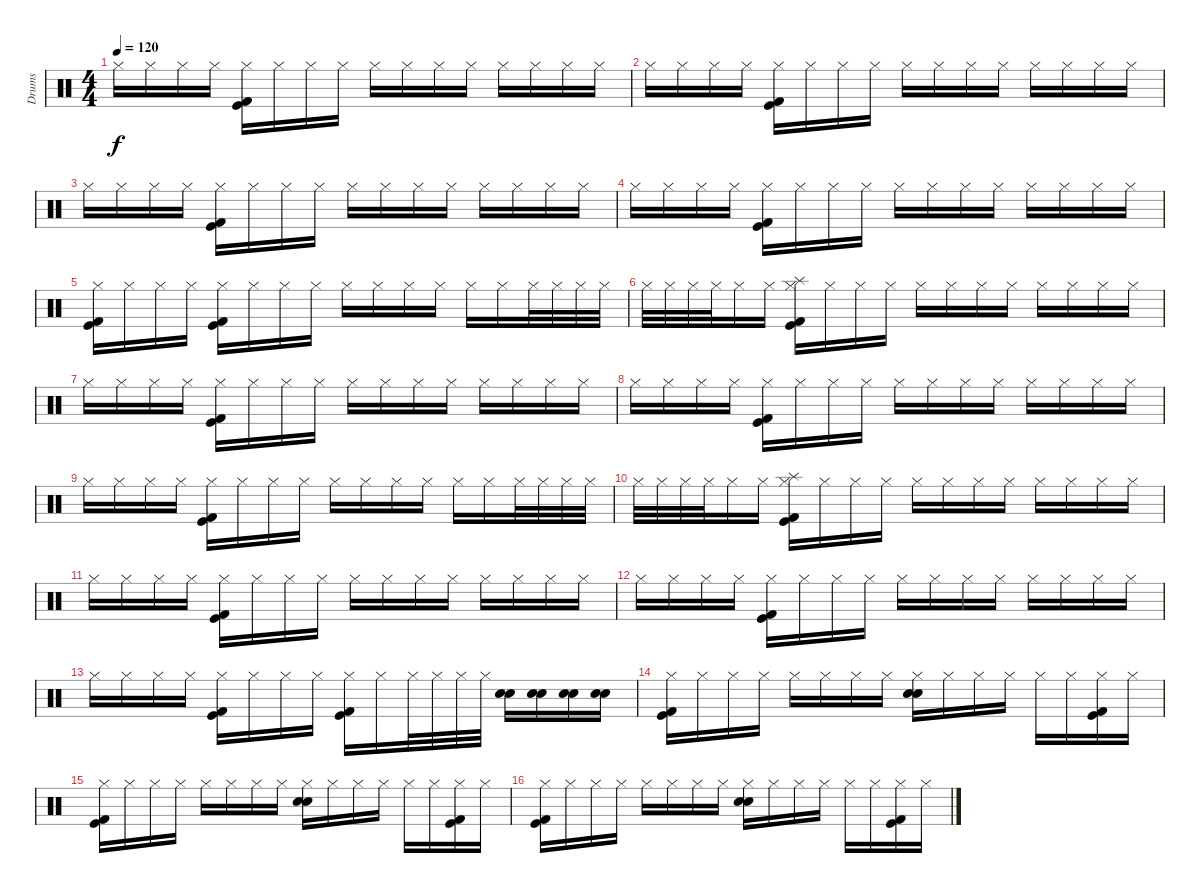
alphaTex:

\track ("Drums" "Drums") {instrument percussion}
\staff {score}
\articulation defaults
\ts (4 4)
\tempo 120
\clef neutral
\ks c "Hi-Hat (closed)".16{dy f} "Hi-Hat (closed)".16 "Hi-Hat (closed)".16 "Hi-Hat (closed)".16
("Hi-Hat (closed)" "Kick (hit)" "Kick (hit) 2").16 "Hi-Hat (closed)".16 "Hi-Hat (closed)".16 "Hi-Hat (closed)".16 "Hi-Hat (closed)".16 "Hi-Hat (closed)".16 "Hi-Hat (closed)".16 "Hi-Hat (closed)".16 "Hi-Hat (closed)".16 "Hi-Hat (closed)".16 "Hi-Hat (closed)".16 "Hi-Hat (closed)".16 |
"Hi-Hat (closed)".16 "Hi-Hat (closed)".16 "Hi-Hat (closed)".16 "Hi-Hat (closed)".16 ("Hi-Hat (closed)" "Kick (hit)" "Kick (hit) 2").16 "Hi-Hat (closed)".16 "Hi-Hat (closed)".16 "Hi-Hat (closed)".16 "Hi-Hat (closed)".16 "Hi-Hat (closed)".16 "Hi-Hat (closed)".16 "Hi-Hat (closed)".16 "Hi-Hat (closed)".16 "Hi-Hat (closed)".16 "Hi-Hat (closed)".16 "Hi-Hat (closed)".16 |
"Hi-Hat (closed)".16 "Hi-Hat (closed)".16 "Hi-Hat (closed)".16 "Hi-Hat (closed)".16 ("Hi-Hat (closed)" "Kick (hit)" "Kick (hit) 2").16 "Hi-Hat (closed)".16 "Hi-Hat (closed)".16 "Hi-Hat (closed)".16 "Hi-Hat (closed)".16 "Hi-Hat (closed)".16 "Hi-Hat (closed)".16 "Hi-Hat (closed)".16 "Hi-Hat (closed)".16 "Hi-Hat (closed)".16 "Hi-Hat (closed)".16 "Hi-Hat (closed)".16 |
"Hi-Hat (closed)".16 "Hi-Hat (closed)".16 "Hi-Hat (closed)".16 "Hi-Hat (closed)".16 ("Hi-Hat (closed)" "Kick (hit)" "Kick (hit) 2").16 "Hi-Hat (closed)".16 "Hi-Hat (closed)".16 "Hi-Hat (closed)".16 "Hi-Hat (closed)".16 "Hi-Hat (closed)".16 "Hi-Hat (closed)".16 "Hi-Hat (closed)".16 "Hi-Hat (closed)".16 "Hi-Hat (closed)".16 "Hi-Hat (closed)".16 "Hi-Hat (closed)".16 |
("Hi-Hat (closed)" "Kick (hit)" "Kick (hit) 2").16 "Hi-Hat (closed)".16 "Hi-Hat (closed)".16 "Hi-Hat (closed)".16 ("Hi-Hat (closed)" "Kick (hit)" "Kick (hit) 2").16 "Hi-Hat (closed)".16 "Hi-Hat (closed)".16 "Hi-Hat (closed)".16 "Hi-Hat (closed)".16 "Hi-Hat (closed)".16 "Hi-Hat (closed)".16 "Hi-Hat (closed)".16 "Hi-Hat (closed)".16 "Hi-Hat (closed)".16 "Hi-Hat (closed)".32 "Hi-Hat (closed)".32 "Hi-Hat (closed)".32 "Hi-Hat (closed)".32 |
"Hi-Hat (closed)".32 "Hi-Hat (closed)".32 "Hi-Hat (closed)".32 "Hi-Hat (closed)".32 "Hi-Hat (closed)".16 "Hi-Hat (closed)".16 ("Splash (hit)" "Hi-Hat (closed)" "Kick (hit)" "Kick (hit) 2").16 "Hi-Hat (closed)".16 "Hi-Hat (closed)".16 "Hi-Hat (closed)".16 "Hi-Hat (closed)".16 "Hi-Hat (closed)".16 "Hi-Hat (closed)".16 "Hi-Hat (closed)".16 "Hi-Hat (closed)".16 "Hi-Hat (closed)".16 "Hi-Hat (closed)".16 "Hi-Hat (closed)".16 |
"Hi-Hat (closed)".16 "Hi-Hat (closed)".16 "Hi-Hat (closed)".16 "Hi-Hat (closed)".16 ("Hi-Hat (closed)" "Kick (hit)" "Kick (hit) 2").16 "Hi-Hat (closed)".16 "Hi-Hat (closed)".16 "Hi-Hat (closed)".16 "Hi-Hat (closed)".16 "Hi-Hat (closed)".16 "Hi-Hat (closed)".16 "Hi-Hat (closed)".16 "Hi-Hat (closed)".16 "Hi-Hat (closed)".16 "Hi-Hat (closed)".16 "Hi-Hat (closed)".16 |
"Hi-Hat (closed)".16 "Hi-Hat (closed)".16 "Hi-Hat (closed)".16 "Hi-Hat (closed)".16 ("Hi-Hat (closed)" "Kick (hit)" "Kick (hit) 2").16 "Hi-Hat (closed)".16 "Hi-Hat (closed)".16 "Hi-Hat (closed)".16 "Hi-Hat (closed)".16 "Hi-Hat (closed)".16 "Hi-Hat (closed)".16 "Hi-Hat (closed)".16 "Hi-Hat (closed)".16 "Hi-Hat (closed)".16 "Hi-Hat (closed)".16 "Hi-Hat (closed)".16 |
"Hi-Hat (closed)".16 "Hi-Hat (closed)".16 "Hi-Hat (closed)".16 "Hi-Hat (closed)".16 ("Hi-Hat (closed)" "Kick (hit)" "Kick (hit) 2").16 "Hi-Hat (closed)".16 "Hi-Hat (closed)".16 "Hi-Hat (closed)".16 "Hi-Hat (closed)".16 "Hi-Hat (closed)".16 "Hi-Hat (closed)".16 "Hi-Hat (closed)".16 "Hi-Hat (closed)".16 "Hi-Hat (closed)".16 "Hi-Hat (closed)".32 "Hi-Hat (closed)".32 "Hi-Hat (closed)".32 "Hi-Hat (closed)".32 |
"Hi-Hat (closed)".32 "Hi-Hat (closed)".32 "Hi-Hat (closed)".32 "Hi-Hat (closed)".32 "Hi-Hat (closed)".16 "Hi-Hat (closed)".16 ("Splash (hit)" "Hi-Hat (closed)" "Kick (hit)" "Kick (hit) 2").16 "Hi-Hat (closed)".16 "Hi-Hat (closed)".16 "Hi-Hat (closed)".16 "Hi-Hat (closed)".16 "Hi-Hat (closed)".16 "Hi-Hat (closed)".16 "Hi-Hat (closed)".16 "Hi-Hat (closed)".16 "Hi-Hat (closed)".16 "Hi-Hat (closed)".16 "Hi-Hat (closed)".16 |
"Hi-Hat (closed)".16 "Hi-Hat (closed)".16 "Hi-Hat (closed)".16 "Hi-Hat (closed)".16 ("Hi-Hat (closed)" "Kick (hit)" "Kick (hit) 2").16 "Hi-Hat (closed)".16 "Hi-Hat (closed)".16 "Hi-Hat (closed)".16 "Hi-Hat (closed)".16 "Hi-Hat (closed)".16 "Hi-Hat (closed)".16 "Hi-Hat (closed)".16 "Hi-Hat (closed)".16 "Hi-Hat (closed)".16 "Hi-Hat (closed)".16 "Hi-Hat (closed)".16 |
"Hi-Hat (closed)".16 "Hi-Hat (closed)".16 "Hi-Hat (closed)".16 "Hi-Hat (closed)".16 ("Hi-Hat (closed)" "Kick (hit)" "Kick (hit) 2").16 "Hi-Hat (closed)".16 "Hi-Hat (closed)".16 "Hi-Hat (closed)".16 "Hi-Hat (closed)".16 "Hi-Hat (closed)".16 "Hi-Hat (closed)".16 "Hi-Hat (closed)".16 "Hi-Hat (closed)".16 "Hi-Hat (closed)".16 "Hi-Hat (closed)".16 "Hi-Hat (closed)".16 |
"Hi-Hat (closed)".16 "Hi-Hat (closed)".16 "Hi-Hat (closed)".16 "Hi-Hat (closed)".16 ("Hi-Hat (closed)" "Kick (hit)" "Kick (hit) 2").16 "Hi-Hat (closed)".16 "Hi-Hat (closed)".16 "Hi-Hat (closed)".16 ("Hi-Hat (closed)" "Kick (hit)" "Kick (hit) 2").16 "Hi-Hat (closed)".16 "Hi-Hat (closed)".32 "Hi-Hat (closed)".32 "Hi-Hat (closed)".32 "Hi-Hat (closed)".32 ("Snare (hit) 2" "Electric Snare (hit)").16 ("Snare (hit) 2" "Electric Snare (hit)").16 ("Snare (hit) 2" "Electric Snare (hit)").16 ("Snare (hit) 2" "Electric Snare (hit)").16 |
("Hi-Hat (closed)" "Kick (hit)" "Kick (hit) 2").16 "Hi-Hat (closed)".16 "Hi-Hat (closed)".16 "Hi-Hat (closed)".16 "Hi-Hat (closed)".16 "Hi-Hat (closed)".16 "Hi-Hat (closed)".16 "Hi-Hat (closed)".16 ("Hi-Hat (closed)" "Snare (hit) 2" "Electric Snare (hit)").16 "Hi-Hat (closed)".16 "Hi-Hat (closed)".16 "Hi-Hat (closed)".16 "Hi-Hat (closed)".16 "Hi-Hat (closed)".16 ("Hi-Hat (closed)" "Kick (hit)" "Kick (hit) 2").16 "Hi-Hat (closed)".16 |
("Hi-Hat (closed)" "Kick (hit)" "Kick (hit) 2").16 "Hi-Hat (closed)".16 "Hi-Hat (closed)".16 "Hi-Hat (closed)".16 "Hi-Hat (closed)".16 "Hi-Hat (closed)".16 "Hi-Hat (closed)".16 "Hi-Hat (closed)".16 ("Hi-Hat (closed)" "Snare (hit) 2" "Electric Snare (hit)").16 "Hi-Hat (closed)".16 "Hi-Hat (closed)".16 "Hi-Hat (closed)".16 "Hi-Hat (closed)".16 "Hi-Hat (closed)".16 ("Hi-Hat (closed)" "Kick (hit)" "Kick (hit) 2").16 "Hi-Hat (closed)".16 |
("Hi-Hat (closed)" "Kick (hit)" "Kick (hit) 2").16 "Hi-Hat (closed)".16 "Hi-Hat (closed)".16 "Hi-Hat (closed)".16 "Hi-Hat (closed)".16 "Hi-Hat (closed)".16 "Hi-Hat (closed)".16 "Hi-Hat (closed)".16 ("Hi-Hat (closed)" "Snare (hit) 2" "Electric Snare (hit)").16 "Hi-Hat (closed)".16 "Hi-Hat (closed)".16 "Hi-Hat (closed)".16 "Hi-Hat (closed)".16 "Hi-Hat (closed)".16 ("Hi-Hat (closed)" "Kick (hit)" "Kick (hit) 2").16 "Hi-Hat (closed)".16
